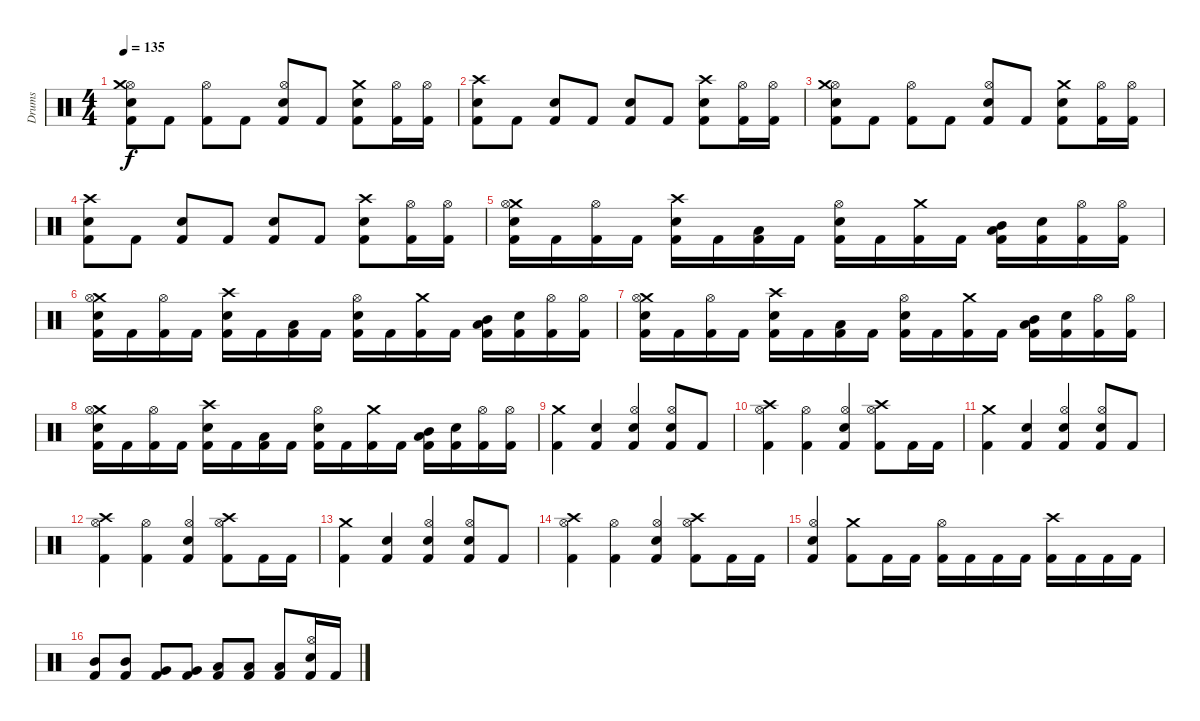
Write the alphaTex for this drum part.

\track ("Drums" "Drums") {instrument percussion}
\staff {score}
\articulation defaults
\ts (4 4)
\tempo 135
\clef neutral
\ks c
("Kick (hit) 2" "Hi-Hat (open)" "Electric Snare (hit)" "Crash medium (hit)").8{dy f} "Kick (hit) 2".8 ("Kick (hit) 2" "Hi-Hat (open)").8 "Kick (hit) 2".8 ("Kick (hit) 2" "Hi-Hat (open)" "Electric Snare (hit)").8 "Kick (hit) 2".8 ("Kick (hit) 2" "Crash medium (hit)" "Electric Snare (hit)").8 ("Kick (hit) 2" "Hi-Hat (open)").16 ("Kick (hit) 2" "Hi-Hat (open)").16 |
("Kick (hit) 2" "Electric Snare (hit)" "Crash high (hit)").8 "Kick (hit) 2".8 ("Kick (hit) 2" "Snare (hit) 2").8 "Kick (hit) 2".8 ("Kick (hit) 2" "Electric Snare (hit)").8 "Kick (hit) 2".8 ("Kick (hit) 2" "Crash high (hit)" "Electric Snare (hit)").8 ("Kick (hit) 2" "Hi-Hat (open)").16 ("Kick (hit) 2" "Hi-Hat (open)").16 |
("Kick (hit) 2" "Hi-Hat (open)" "Electric Snare (hit)" "Crash medium (hit)").8 "Kick (hit) 2".8 ("Kick (hit) 2" "Hi-Hat (open)").8 "Kick (hit) 2".8 ("Kick (hit) 2" "Hi-Hat (open)" "Electric Snare (hit)").8 "Kick (hit) 2".8 ("Kick (hit) 2" "Crash medium (hit)" "Electric Snare (hit)").8 ("Kick (hit) 2" "Hi-Hat (open)").16 ("Kick (hit) 2" "Hi-Hat (open)").16 |
("Kick (hit) 2" "Electric Snare (hit)" "Crash high (hit)").8 "Kick (hit) 2".8 ("Kick (hit) 2" "Snare (hit) 2").8 "Kick (hit) 2".8 ("Kick (hit) 2" "Electric Snare (hit)").8 "Kick (hit) 2".8 ("Kick (hit) 2" "Crash high (hit)" "Electric Snare (hit)").8 ("Kick (hit) 2" "Hi-Hat (open)").16 ("Kick (hit) 2" "Hi-Hat (open)").16 |
("Kick (hit) 2" "Crash medium (hit)" "Hi-Hat (open)" "Electric Snare (hit)").16 "Kick (hit) 2".16 ("Kick (hit) 2" "Hi-Hat (open)").16 "Kick (hit) 2".16 ("Kick (hit) 2" "Crash high (hit)" "Electric Snare (hit)").16 "Kick (hit) 2".16 ("Kick (hit) 2" "Low Floor Tom (hit)").16 "Kick (hit) 2".16 ("Kick (hit) 2" "Hi-Hat (open)" "Electric Snare (hit)").16 "Kick (hit) 2".16 ("Kick (hit) 2" "Crash medium (hit)").16 "Kick (hit) 2".16 ("Kick (hit) 2" "Low Floor Tom (hit)" "Mid Tom (hit)").16 ("Kick (hit) 2" "Electric Snare (hit)").16 ("Kick (hit) 2" "Hi-Hat (open)").16 ("Kick (hit) 2" "Hi-Hat (open)").16 |
("Kick (hit) 2" "Crash medium (hit)" "Hi-Hat (open)" "Electric Snare (hit)").16 "Kick (hit) 2".16 ("Kick (hit) 2" "Hi-Hat (open)").16 "Kick (hit) 2".16 ("Kick (hit) 2" "Crash high (hit)" "Electric Snare (hit)").16 "Kick (hit) 2".16 ("Kick (hit) 2" "Low Floor Tom (hit)").16 "Kick (hit) 2".16 ("Kick (hit) 2" "Hi-Hat (open)" "Electric Snare (hit)").16 "Kick (hit) 2".16 ("Kick (hit) 2" "Crash medium (hit)").16 "Kick (hit) 2".16 ("Kick (hit) 2" "Low Floor Tom (hit)" "Mid Tom (hit)").16 ("Kick (hit) 2" "Electric Snare (hit)").16 ("Kick (hit) 2" "Hi-Hat (open)").16 ("Kick (hit) 2" "Hi-Hat (open)").16 |
("Kick (hit) 2" "Crash medium (hit)" "Hi-Hat (open)" "Electric Snare (hit)").16 "Kick (hit) 2".16 ("Kick (hit) 2" "Hi-Hat (open)").16 "Kick (hit) 2".16 ("Kick (hit) 2" "Crash high (hit)" "Electric Snare (hit)").16 "Kick (hit) 2".16 ("Kick (hit) 2" "Low Floor Tom (hit)").16 "Kick (hit) 2".16 ("Kick (hit) 2" "Hi-Hat (open)" "Electric Snare (hit)").16 "Kick (hit) 2".16 ("Kick (hit) 2" "Crash medium (hit)").16 "Kick (hit) 2".16 ("Kick (hit) 2" "Low Floor Tom (hit)" "Mid Tom (hit)").16 ("Kick (hit) 2" "Electric Snare (hit)").16 ("Kick (hit) 2" "Hi-Hat (open)").16 ("Kick (hit) 2" "Hi-Hat (open)").16 |
("Kick (hit) 2" "Crash medium (hit)" "Hi-Hat (open)" "Electric Snare (hit)").16 "Kick (hit) 2".16 ("Kick (hit) 2" "Hi-Hat (open)").16 "Kick (hit) 2".16 ("Kick (hit) 2" "Crash high (hit)" "Electric Snare (hit)").16 "Kick (hit) 2".16 ("Kick (hit) 2" "Low Floor Tom (hit)").16 "Kick (hit) 2".16 ("Kick (hit) 2" "Hi-Hat (open)" "Electric Snare (hit)").16 "Kick (hit) 2".16 ("Kick (hit) 2" "Crash medium (hit)").16 "Kick (hit) 2".16 ("Kick (hit) 2" "Low Floor Tom (hit)" "Mid Tom (hit)").16 ("Kick (hit) 2" "Electric Snare (hit)").16 ("Kick (hit) 2" "Hi-Hat (open)").16 ("Kick (hit) 2" "Hi-Hat (open)").16 |
("Kick (hit) 2" "Crash medium (hit)").4 ("Kick (hit) 2" "Electric Snare (hit)").4 ("Hi-Hat (open)" "Kick (hit) 2" "Snare (hit) 2").4 ("Kick (hit) 2" "Hi-Hat (open)" "Electric Snare (hit)").8 "Kick (hit) 2".8 |
("Kick (hit) 2" "Crash high (hit)" "Hi-Hat (open)").4 ("Kick (hit) 2" "Hi-Hat (open)").4 ("Hi-Hat (open)" "Kick (hit) 2" "Snare (hit) 2").4 ("Kick (hit) 2" "Hi-Hat (open)" "Crash high (hit)").8 "Kick (hit) 2".16 "Kick (hit) 2".16 |
("Kick (hit) 2" "Crash medium (hit)").4 ("Kick (hit) 2" "Electric Snare (hit)").4 ("Hi-Hat (open)" "Kick (hit) 2" "Snare (hit) 2").4 ("Kick (hit) 2" "Hi-Hat (open)" "Electric Snare (hit)").8 "Kick (hit) 2".8 |
("Kick (hit) 2" "Crash high (hit)" "Hi-Hat (open)").4 ("Kick (hit) 2" "Hi-Hat (open)").4 ("Hi-Hat (open)" "Kick (hit) 2" "Snare (hit) 2").4 ("Kick (hit) 2" "Hi-Hat (open)" "Crash high (hit)").8 "Kick (hit) 2".16 "Kick (hit) 2".16 |
("Kick (hit) 2" "Crash medium (hit)").4 ("Kick (hit) 2" "Electric Snare (hit)").4 ("Hi-Hat (open)" "Kick (hit) 2" "Snare (hit) 2").4 ("Kick (hit) 2" "Hi-Hat (open)" "Electric Snare (hit)").8 "Kick (hit) 2".8 |
("Kick (hit) 2" "Crash high (hit)" "Hi-Hat (open)").4 ("Kick (hit) 2" "Hi-Hat (open)").4 ("Hi-Hat (open)" "Kick (hit) 2" "Snare (hit) 2").4 ("Kick (hit) 2" "Hi-Hat (open)" "Crash high (hit)").8 "Kick (hit) 2".16 "Kick (hit) 2".16 |
("Hi-Hat (open)" "Kick (hit) 2" "Electric Snare (hit)").4 ("Kick (hit) 2" "Crash medium (hit)").8 "Kick (hit) 2".16 "Kick (hit) 2".16 ("Kick (hit) 2" "Hi-Hat (open)").16 "Kick (hit) 2".16 "Kick (hit) 2".16 "Kick (hit) 2".16 ("Kick (hit) 2" "Crash high (hit)").16 "Kick (hit) 2".16 "Kick (hit) 2".16 "Kick (hit) 2".16 |
("Kick (hit) 2" "Mid Tom (hit)").8 ("Kick (hit) 2" "Mid Tom (hit)").8 ("Kick (hit) 2" "Very Low Tom (hit)").8 ("Kick (hit) 2" "Very Low Tom (hit)").8 ("Kick (hit) 2" "Low Floor Tom (hit)").8 ("Kick (hit) 2" "Low Floor Tom (hit)").8 ("Kick (hit) 2" "Low Floor Tom (hit)").8 ("Kick (hit) 2" "Electric Snare (hit)" "Hi-Hat (open)").16 "Kick (hit) 2".16
